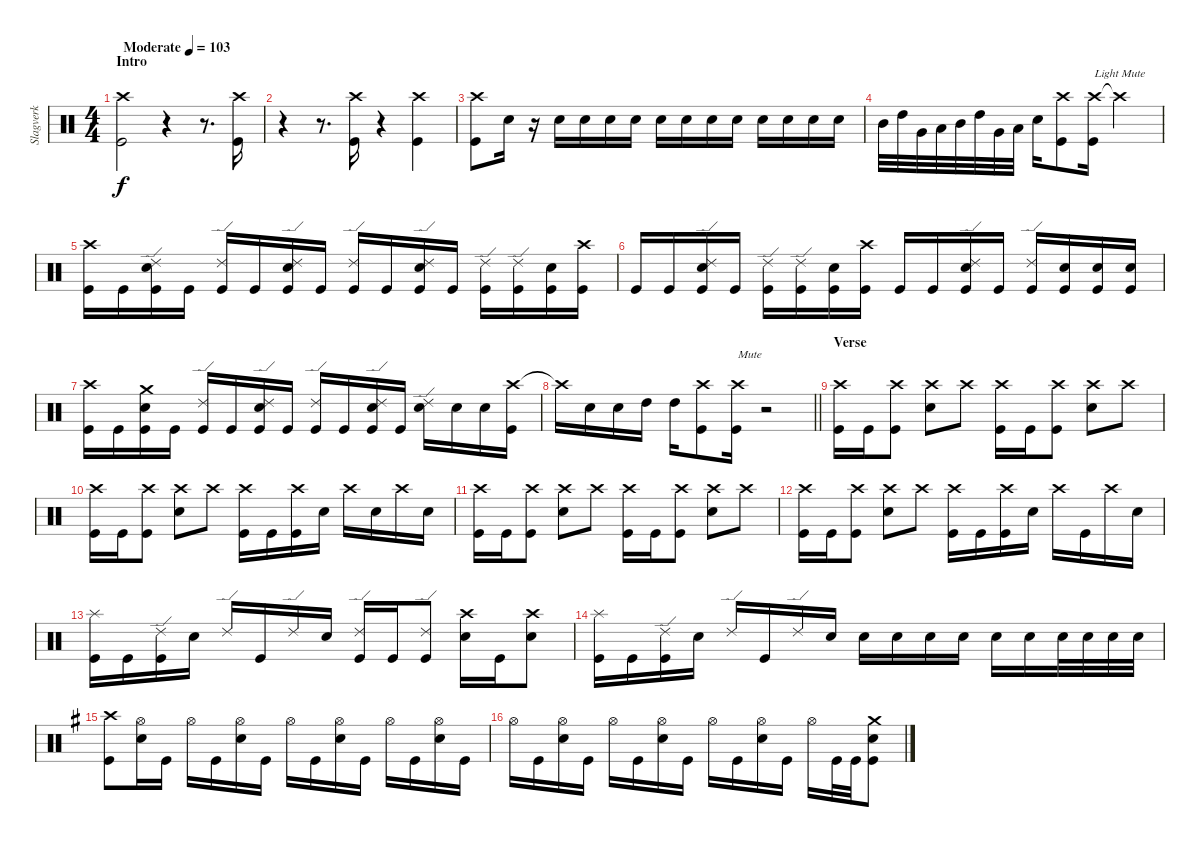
\track ("Slagverk" "Slagverk") {instrument percussion}
\staff {score}
\articulation defaults
\ts (4 4)
\section ("" "Intro")
\tempo (103 "Moderate")
\clef neutral
\ks c
("Crash high (hit)" "Kick (hit)").2{dy f} r.4 r.8{d} ("Crash high (hit)" "Kick (hit)").16 |
r.4 r.8{d} ("Crash high (hit)" "Kick (hit)").16 r.4 ("Crash high (hit)" "Kick (hit)").4 |
("Crash high (hit)" "Kick (hit)").8 "Electric Snare (hit)".16 r.16 "Electric Snare (hit)".16 "Electric Snare (hit)".16 "Electric Snare (hit)".16 "Electric Snare (hit)".16 "Electric Snare (hit)".16 "Electric Snare (hit)".16 "Electric Snare (hit)".16 "Electric Snare (hit)".16 "Electric Snare (hit)".16 "Electric Snare (hit)".16 "Electric Snare (hit)".16 "Electric Snare (hit)".16 |
"Mid Tom (hit)".32 "High Tom (hit)".32 "Very Low Tom (hit)".32 "Low Floor Tom (hit)".32 "Mid Tom (hit)".32 "High Tom (hit)".32 "Very Low Tom (hit)".32 "Low Floor Tom (hit)".32 "Electric Snare (hit)".16 ("Crash high (hit)" "Kick (hit)").8 ("Crash high (hit)" "Kick (hit)").16{txt "Light Mute"} "Crash high (hit)"{t}.2 |
("Crash high (hit)" "Kick (hit)").16 "Kick (hit)".16 ("Ride (edge) 2" "Electric Snare (hit)" "Kick (hit)").16 "Kick (hit)".16 ("Ride (edge) 2" "Kick (hit)").16 "Kick (hit)".16 ("Ride (edge) 2" "Electric Snare (hit)" "Kick (hit)").16 "Kick (hit)".16 ("Ride (edge) 2" "Kick (hit)").16 "Kick (hit)".16 ("Ride (edge) 2" "Electric Snare (hit)" "Kick (hit)").16 "Kick (hit)".16 ("Ride (edge) 2" "Kick (hit)").16 ("Ride (edge) 2" "Kick (hit)").16 ("Electric Snare (hit)" "Kick (hit)").16 ("Crash high (hit)" "Kick (hit)").16 |
"Kick (hit)".16 "Kick (hit)".16 ("Ride (edge) 2" "Electric Snare (hit)" "Kick (hit)").16 "Kick (hit)".16 ("Ride (edge) 2" "Kick (hit)").16 ("Ride (edge) 2" "Kick (hit)").16 ("Electric Snare (hit)" "Kick (hit)").16 ("Crash high (hit)" "Kick (hit)").16 "Kick (hit)".16 "Kick (hit)".16 ("Ride (edge) 2" "Electric Snare (hit)" "Kick (hit)").16 "Kick (hit)".16 ("Ride (edge) 2" "Kick (hit)").16 ("Electric Snare (hit)" "Kick (hit)").16 ("Electric Snare (hit)" "Kick (hit)").16 ("Electric Snare (hit)" "Kick (hit)").16 |
("Crash high (hit)" "Kick (hit)").16 "Kick (hit)".16 ("Crash medium (hit)" "Electric Snare (hit)" "Kick (hit)").16 "Kick (hit)".16 ("Ride (edge) 2" "Kick (hit)").16 "Kick (hit)".16 ("Ride (edge) 2" "Electric Snare (hit)" "Kick (hit)").16 "Kick (hit)".16 ("Ride (edge) 2" "Kick (hit)").16 "Kick (hit)".16 ("Ride (edge) 2" "Electric Snare (hit)" "Kick (hit)").16 "Kick (hit)".16 ("Ride (edge) 2" "Electric Snare (hit)").16 "Electric Snare (hit)".16 "Electric Snare (hit)".16 ("Crash high (hit)" "Kick (hit)").16 |
\barLineRight lightlight "Crash high (hit)"{t}.16 "Electric Snare (hit)".16 "Electric Snare (hit)".16 "High Tom (hit)".16 "High Tom (hit)".16
("Crash high (hit)" "Kick (hit)").8 ("Crash high (hit)" "Kick (hit)").16{txt "Mute"} r.2 |
\section ("" "Verse")
("Crash high (hit)" "Kick (hit)").16 "Kick (hit)".16 ("Crash high (hit)" "Kick (hit)").8 ("Crash high (hit)" "Electric Snare (hit)").8 "Crash high (hit)".8 ("Crash high (hit)" "Kick (hit)").16 "Kick (hit)".16 ("Crash high (hit)" "Kick (hit)").8 ("Crash high (hit)" "Electric Snare (hit)").8 "Crash high (hit)".8 |
("Crash high (hit)" "Kick (hit)").16 "Kick (hit)".16 ("Crash high (hit)" "Kick (hit)").8 ("Crash high (hit)" "Electric Snare (hit)").8 "Crash high (hit)".8 ("Crash high (hit)" "Kick (hit)").16 "Kick (hit)".16 ("Crash high (hit)" "Kick (hit)").16 "Electric Snare (hit)".16 "Crash high (hit)".16 "Electric Snare (hit)".16 "Crash high (hit)".16 "Electric Snare (hit)".16 |
("Crash high (hit)" "Kick (hit)").16 "Kick (hit)".16 ("Crash high (hit)" "Kick (hit)").8 ("Crash high (hit)" "Electric Snare (hit)").8 "Crash high (hit)".8 ("Crash high (hit)" "Kick (hit)").16 "Kick (hit)".16 ("Crash high (hit)" "Kick (hit)").8 ("Crash high (hit)" "Electric Snare (hit)").8 "Crash high (hit)".8 |
("Crash high (hit)" "Kick (hit)").16 "Kick (hit)".16 ("Crash high (hit)" "Kick (hit)").8 ("Crash high (hit)" "Electric Snare (hit)").8 "Crash high (hit)".8 ("Crash high (hit)" "Kick (hit)").16 "Kick (hit)".16 ("Crash high (hit)" "Kick (hit)").16 "Electric Snare (hit)".16 "Crash high (hit)".16 "Kick (hit)".16 "Crash high (hit)".16 "Electric Snare (hit)".16 |
("Splash (hit)" "Kick (hit)").16 "Kick (hit)".16 ("Ride (edge) 2" "Kick (hit)").16 "Electric Snare (hit)".16 "Ride (edge) 2".16 "Kick (hit)".16 "Ride (edge) 2".16 "Electric Snare (hit)".16 ("Ride (edge) 2" "Kick (hit)").16 "Kick (hit)".16 ("Ride (edge) 2" "Kick (hit)").8 ("Crash high (hit)" "Electric Snare (hit)").16 "Kick (hit)".16 ("Crash high (hit)" "Electric Snare (hit)").8 |
("Splash (hit)" "Kick (hit)").16 "Kick (hit)".16 ("Ride (edge) 2" "Kick (hit)").16 "Electric Snare (hit)".16 "Ride (edge) 2".16 "Kick (hit)".16 "Ride (edge) 2".16 "Electric Snare (hit)".16 "Electric Snare (hit)".16 "Electric Snare (hit)".16 "Electric Snare (hit)".16 "Electric Snare (hit)".16 "Electric Snare (hit)".16 "Electric Snare (hit)".16 "Electric Snare (hit)".32 "Electric Snare (hit)".32 "Electric Snare (hit)".32 "Electric Snare (hit)".32 |
\ks g
("Crash high (hit)" "Kick (hit)").8 ("Hi-Hat (open)" "Electric Snare (hit)").16 "Kick (hit)".16 "Hi-Hat (open)".16 "Kick (hit)".16 ("Hi-Hat (open)" "Electric Snare (hit)").16 "Kick (hit)".16 "Hi-Hat (open)".16 "Kick (hit)".16 ("Hi-Hat (open)" "Electric Snare (hit)").16 "Kick (hit)".16 "Hi-Hat (open)".16 "Kick (hit)".16 ("Hi-Hat (open)" "Electric Snare (hit)").16 "Kick (hit)".16 |
"Hi-Hat (open)".16 "Kick (hit)".16 ("Hi-Hat (open)" "Electric Snare (hit)").16 "Kick (hit)".16 "Hi-Hat (open)".16 "Kick (hit)".16 ("Hi-Hat (open)" "Electric Snare (hit)").16 "Kick (hit)".16 "Hi-Hat (open)".16 "Kick (hit)".16 ("Hi-Hat (open)" "Electric Snare (hit)").16 "Kick (hit)".16 "Hi-Hat (open)".16 "Kick (hit)".32 "Kick (hit)".32 ("Crash medium (hit)" "Electric Snare (hit)" "Kick (hit)").8
